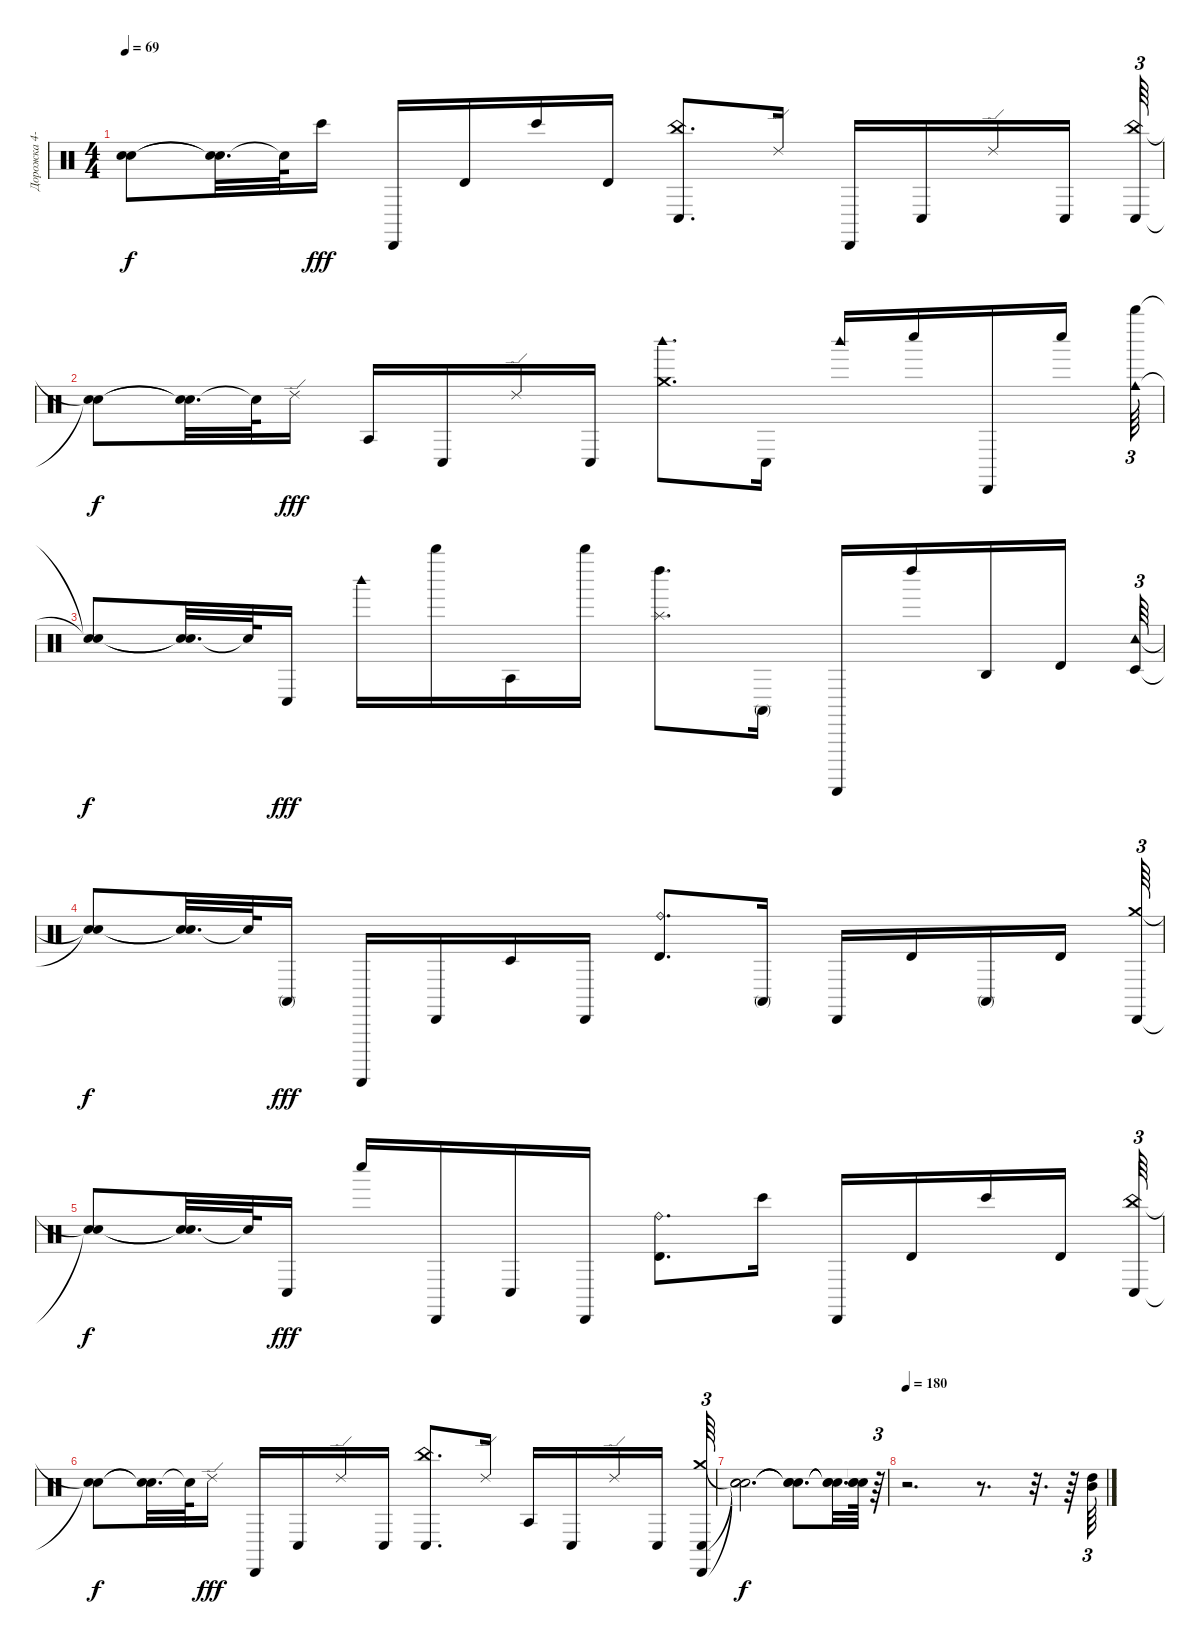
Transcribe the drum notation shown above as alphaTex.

\track ("Дорожка 4-10-11" "Дорожка 4-") {instrument percussion}
\staff {score}
\articulation defaults
\ts (4 4)
\tempo 69
\clef neutral
\ks c
("Snare (hit)"{t} "Snare (hit)"{t}).8{dy f} ("Snare (hit)"{t} "Snare (hit)"{t}).32{d} "Snare (hit)"{t}.64 "Bongo High (hit)".16{dy fff} "Cabasa (hit)".16 "Timbale high (hit)".16 "Bongo High (hit)".16 "Timbale high (hit)".16 ("China (hit)" "Conga low (hit)").8{d} "Ride (edge) 2".16 "Cabasa (hit)".16 "Conga low (hit)".16 "Ride (edge) 2".16 "Conga low (hit)".16 ("China (hit)" "Conga low (hit)").64{tu (3 2)} |
("Snare (hit)"{t} "Snare (hit)"{t}).8{dy f} ("Snare (hit)"{t} "Snare (hit)"{t}).32{d} "Snare (hit)"{t}.64 "Ride (edge) 2".16{dy fff} "Agogo tow (hit)".16 "Conga low (hit)".16 "Ride (edge) 2".16 "Conga low (hit)".16 ("Crash medium (hit)" "Woodblock high (hit)").8{d} "Conga low (hit)".16 "Woodblock high (hit)".16 "Whistle low (hit)".16 "Cabasa (hit)".16 "Whistle low (hit)".16 ("Cowbell medium (hit)" "Whistle high (hit)").64{tu (3 2)} |
("Snare (hit)"{t} "Snare (hit)"{t}).8{dy f} ("Snare (hit)"{t} "Snare (hit)"{t}).32{d} "Snare (hit)"{t}.64 "Conga low (hit)".16{dy fff} "Woodblock high (hit)".16 "Whistle high (hit)".16 "Agogo tow (hit)".16 "Whistle high (hit)".16 ("Splash (hit)" "Left Maraca (hit)").8{d} "Conga high (mute)".16 "Guiro (scrap-return)".16 "Left Maraca (hit)".16 "Agogo high (hit)".16 "Timbale high (hit)".16 ("Tambourine (hit)" "Timbale low (hit)").64{tu (3 2)} |
("Snare (hit)"{t} "Snare (hit)"{t}).8{dy f} ("Snare (hit)"{t} "Snare (hit)"{t}).32{d} "Snare (hit)"{t}.64 "Conga high (mute)".16{dy fff} "Guiro (scrap-return)".16 "Cabasa (hit)".16 "Timbale low (hit)".16 "Cabasa (hit)".16 ("Ride (bell)" "Timbale high (hit)").8{d} "Conga high (mute)".16 "Cabasa (hit)".16 "Timbale high (hit)".16 "Conga high (mute)".16 "Timbale high (hit)".16 ("Crash medium (hit)" "Cabasa (hit)").64{tu (3 2)} |
("Snare (hit)"{t} "Snare (hit)"{t}).8{dy f} ("Snare (hit)"{t} "Snare (hit)"{t}).32{d} "Snare (hit)"{t}.64 "Conga low (hit)".16{dy fff} "Whistle low (hit)".16 "Cabasa (hit)".16 "Conga low (hit)".16 "Cabasa (hit)".16 ("Ride (bell)" "Timbale high (hit)").8{d} "Bongo High (hit)".16 "Cabasa (hit)".16 "Timbale high (hit)".16 "Bongo High (hit)".16 "Timbale high (hit)".16 ("China (hit)" "Conga low (hit)").64{tu (3 2)} |
("Snare (hit)"{t} "Snare (hit)"{t}).8{dy f} ("Snare (hit)"{t} "Snare (hit)"{t}).32{d} "Snare (hit)"{t}.64 "Ride (edge) 2".16{dy fff} "Cabasa (hit)".16 "Conga low (hit)".16 "Ride (edge) 2".16 "Conga low (hit)".16 ("China (hit)" "Conga low (hit)").8{d} "Ride (edge) 2".16 "Agogo tow (hit)".16 "Conga low (hit)".16 "Ride (edge) 2".16 "Conga low (hit)".16 ("Crash medium (hit)" "Conga low (hit)" "Cabasa (hit)").64{tu (3 2)} |
("Snare (hit)"{t} "Snare (hit)"{t} "Snare (hit)"{t}).2{d dy f} ("Snare (hit)"{t} "Snare (hit)"{t} "Snare (hit)"{t}).8{d} ("Snare (hit)"{t} "Snare (hit)"{t} "Snare (hit)"{t}).32{d} ("Snare (hit)"{t} "Snare (hit)"{t} "Snare (hit)"{t}).64 r.64{tu (3 2)} |
\tempo 180
r.2{d} r.8{d} r.32{d} r.64 ("Mid Tom (hit)" "High Tom (hit)").64{tu (3 2)}
